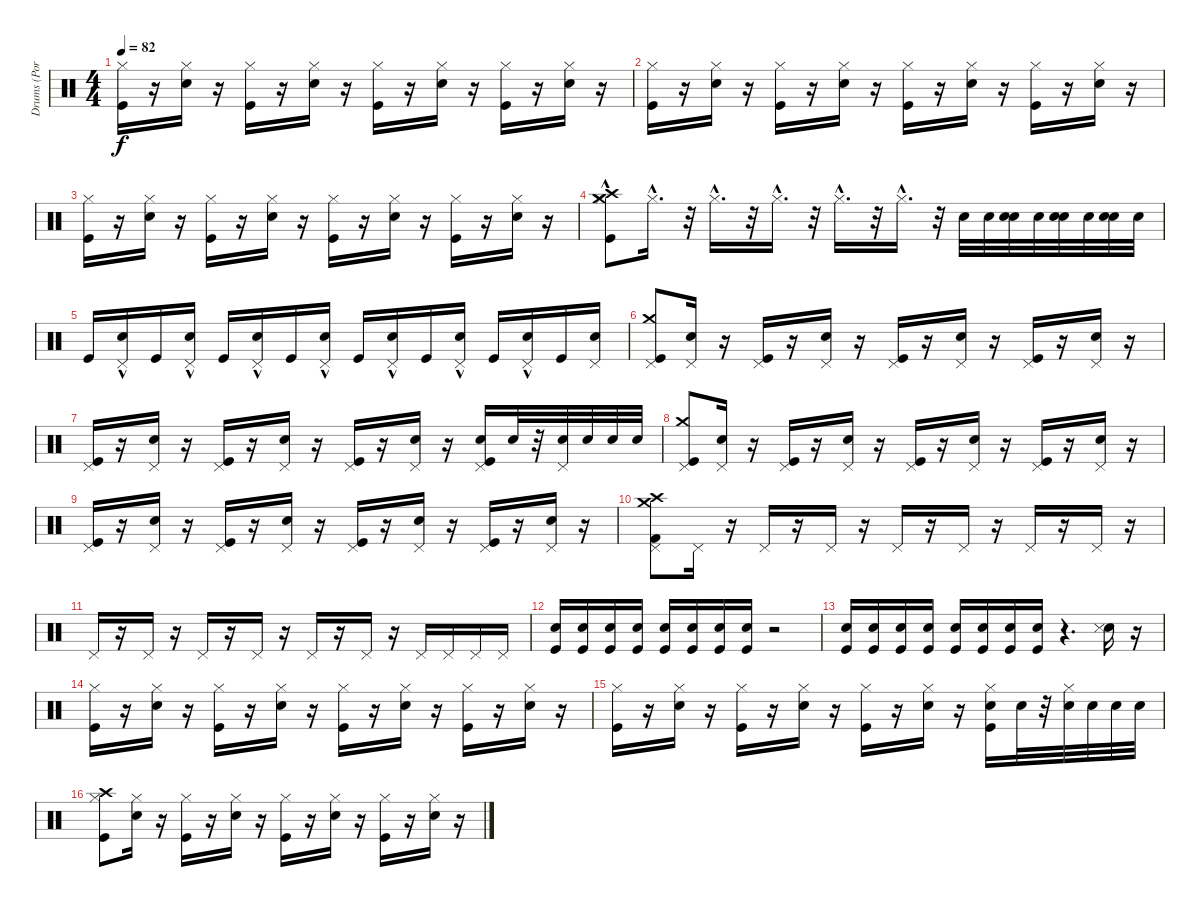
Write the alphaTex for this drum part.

\track ("Drums (Poruchik)" "Drums (Por") {instrument percussion}
\staff {score}
\articulation defaults
\ts (4 4)
\tempo 82
\clef neutral
\ks c
("Kick (hit)" "Hi-Hat (closed)").16{dy f} r.16 ("Hi-Hat (closed)" "Snare (hit) 2").16 r.16 ("Kick (hit)" "Hi-Hat (closed)").16 r.16 ("Snare (hit) 2" "Hi-Hat (closed)").16 r.16 ("Hi-Hat (closed)" "Kick (hit)").16 r.16 ("Hi-Hat (closed)" "Snare (hit) 2").16 r.16 ("Kick (hit)" "Hi-Hat (closed)").16 r.16 ("Hi-Hat (closed)" "Snare (hit) 2").16 r.16 |
("Hi-Hat (closed)" "Kick (hit)").16 r.16 ("Hi-Hat (closed)" "Snare (hit) 2").16 r.16 ("Kick (hit)" "Hi-Hat (closed)").16 r.16 ("Hi-Hat (closed)" "Snare (hit) 2").16 r.16 ("Hi-Hat (closed)" "Kick (hit)").16 r.16 ("Snare (hit) 2" "Hi-Hat (closed)").16 r.16 ("Hi-Hat (closed)" "Kick (hit)").16 r.16 ("Hi-Hat (closed)" "Snare (hit) 2").16 r.16 |
("Kick (hit)" "Hi-Hat (closed)").16 r.16 ("Snare (hit) 2" "Hi-Hat (closed)").16 r.16 ("Hi-Hat (closed)" "Kick (hit)").16 r.16 ("Hi-Hat (closed)" "Snare (hit) 2").16 r.16 ("Hi-Hat (closed)" "Kick (hit)").16 r.16 ("Snare (hit) 2" "Hi-Hat (closed)").16 r.16 ("Hi-Hat (closed)" "Kick (hit)").16 r.16 ("Hi-Hat (closed)" "Snare (hit) 2").16 r.16 |
("Crash high (hit)" "Kick (hit)" "Crash medium (hit)" "Hi-Hat (closed)"{hac}).8 "Hi-Hat (closed)"{hac}.16{d} r.32 "Hi-Hat (closed)"{hac}.16{d} r.32 "Hi-Hat (closed)"{hac}.16{d} r.32 "Hi-Hat (closed)"{hac}.16{d} r.32 "Hi-Hat (closed)"{hac}.16{d} r.32 "Snare (hit) 2".32 "Snare (hit) 2".32 ("Snare (hit) 2" "Snare (hit) 2").32 "Snare (hit) 2".32 ("Snare (hit) 2" "Snare (hit) 2").32 "Snare (hit) 2".32 ("Snare (hit) 2" "Snare (hit) 2").32 "Snare (hit) 2".32 |
"Kick (hit)".16 ("Snare (hit) 2" "Pedal Hi-Hat (hit)"{hac}).16 "Kick (hit)".16 ("Snare (hit) 2" "Pedal Hi-Hat (hit)"{hac}).16 "Kick (hit)".16 ("Pedal Hi-Hat (hit)"{hac} "Snare (hit) 2").16 "Kick (hit)".16 ("Snare (hit) 2" "Pedal Hi-Hat (hit)"{hac}).16 "Kick (hit)".16 ("Pedal Hi-Hat (hit)"{hac} "Snare (hit) 2").16 "Kick (hit)".16 ("Snare (hit) 2" "Pedal Hi-Hat (hit)"{hac}).16 "Kick (hit)".16 ("Pedal Hi-Hat (hit)"{hac} "Snare (hit) 2").16 "Kick (hit)".16 ("Snare (hit) 2" "Pedal Hi-Hat (hit)").16 |
("Kick (hit)" "Crash medium (hit)" "Pedal Hi-Hat (hit)").8 ("Pedal Hi-Hat (hit)" "Snare (hit) 2").16 r.16 ("Pedal Hi-Hat (hit)" "Kick (hit)").16 r.16 ("Pedal Hi-Hat (hit)" "Snare (hit) 2").16 r.16 ("Kick (hit)" "Pedal Hi-Hat (hit)").16 r.16 ("Pedal Hi-Hat (hit)" "Snare (hit) 2").16 r.16 ("Pedal Hi-Hat (hit)" "Kick (hit)").16 r.16 ("Snare (hit) 2" "Pedal Hi-Hat (hit)").16 r.16 |
("Kick (hit)" "Pedal Hi-Hat (hit)").16 r.16 ("Snare (hit) 2" "Pedal Hi-Hat (hit)").16 r.16 ("Kick (hit)" "Pedal Hi-Hat (hit)").16 r.16 ("Pedal Hi-Hat (hit)" "Snare (hit) 2").16 r.16 ("Kick (hit)" "Pedal Hi-Hat (hit)").16 r.16 ("Pedal Hi-Hat (hit)" "Snare (hit) 2").16 r.16 ("Pedal Hi-Hat (hit)" "Snare (hit) 2" "Kick (hit)").16 "Snare (hit) 2".32 r.32 ("Pedal Hi-Hat (hit)" "Snare (hit) 2").32 "Snare (hit) 2".32 "Snare (hit) 2".32 "Snare (hit) 2".32 |
("Pedal Hi-Hat (hit)" "Kick (hit)" "Crash medium (hit)").8 ("Pedal Hi-Hat (hit)" "Snare (hit) 2").16 r.16 ("Pedal Hi-Hat (hit)" "Kick (hit)").16 r.16 ("Snare (hit) 2" "Pedal Hi-Hat (hit)").16 r.16 ("Pedal Hi-Hat (hit)" "Kick (hit)").16 r.16 ("Pedal Hi-Hat (hit)" "Snare (hit) 2").16 r.16 ("Pedal Hi-Hat (hit)" "Kick (hit)").16 r.16 ("Snare (hit) 2" "Pedal Hi-Hat (hit)").16 r.16 |
("Pedal Hi-Hat (hit)" "Kick (hit)").16 r.16 ("Snare (hit) 2" "Pedal Hi-Hat (hit)").16 r.16 ("Kick (hit)" "Pedal Hi-Hat (hit)").16 r.16 ("Snare (hit) 2" "Pedal Hi-Hat (hit)").16 r.16 ("Pedal Hi-Hat (hit)" "Kick (hit)").16 r.16 ("Pedal Hi-Hat (hit)" "Snare (hit) 2").16 r.16 ("Kick (hit)" "Pedal Hi-Hat (hit)").16 r.16 ("Pedal Hi-Hat (hit)" "Snare (hit) 2").16 r.16 |
("Pedal Hi-Hat (hit)" "Crash high (hit)" "Crash medium (hit)" "Kick (hit) 2").8 "Pedal Hi-Hat (hit)".16 r.16 "Pedal Hi-Hat (hit)".16 r.16 "Pedal Hi-Hat (hit)".16 r.16 "Pedal Hi-Hat (hit)".16 r.16 "Pedal Hi-Hat (hit)".16 r.16 "Pedal Hi-Hat (hit)".16 r.16 "Pedal Hi-Hat (hit)".16 r.16 |
"Pedal Hi-Hat (hit)".16 r.16 "Pedal Hi-Hat (hit)".16 r.16 "Pedal Hi-Hat (hit)".16 r.16 "Pedal Hi-Hat (hit)".16 r.16 "Pedal Hi-Hat (hit)".16 r.16 "Pedal Hi-Hat (hit)".16 r.16 "Pedal Hi-Hat (hit)".16 "Pedal Hi-Hat (hit)".16 "Pedal Hi-Hat (hit)".16 "Pedal Hi-Hat (hit)".16 |
("Kick (hit)" "Snare (hit) 2").16 ("Kick (hit)" "Snare (hit) 2").16 ("Kick (hit)" "Snare (hit) 2").16 ("Kick (hit)" "Snare (hit) 2").16 ("Kick (hit)" "Snare (hit) 2").16 ("Kick (hit)" "Snare (hit) 2").16 ("Kick (hit)" "Snare (hit) 2").16 ("Kick (hit)" "Snare (hit) 2").16 r.2 |
("Kick (hit)" "Snare (hit) 2").16 ("Snare (hit) 2" "Kick (hit)").16 ("Kick (hit)" "Snare (hit) 2").16 ("Snare (hit) 2" "Kick (hit)").16 ("Kick (hit)" "Snare (hit) 2").16 ("Kick (hit)" "Snare (hit) 2").16 ("Snare (hit) 2" "Kick (hit)").16 ("Kick (hit)" "Snare (hit) 2").16 r.4{d} ("Snare (hit) 2" "Snare (side stick) 3").16 r.16 |
("Hi-Hat (closed)" "Kick (hit)").16 r.16 ("Hi-Hat (closed)" "Snare (hit) 2").16 r.16 ("Hi-Hat (closed)" "Kick (hit)").16 r.16 ("Hi-Hat (closed)" "Snare (hit) 2").16 r.16 ("Hi-Hat (closed)" "Kick (hit)").16 r.16 ("Hi-Hat (closed)" "Snare (hit) 2").16 r.16 ("Hi-Hat (closed)" "Kick (hit)").16 r.16 ("Hi-Hat (closed)" "Snare (hit) 2").16 r.16 |
("Hi-Hat (closed)" "Kick (hit)").16 r.16 ("Hi-Hat (closed)" "Snare (hit) 2").16 r.16 ("Hi-Hat (closed)" "Kick (hit)").16 r.16 ("Hi-Hat (closed)" "Snare (hit) 2").16 r.16 ("Hi-Hat (closed)" "Kick (hit)").16 r.16 ("Hi-Hat (closed)" "Snare (hit) 2").16 r.16 ("Kick (hit)" "Hi-Hat (closed)" "Snare (hit) 2").16 "Snare (hit) 2".32 r.32 ("Snare (hit) 2" "Hi-Hat (closed)").32 "Snare (hit) 2".32 "Snare (hit) 2".32 "Snare (hit) 2".32 |
("Crash high (hit)" "Hi-Hat (closed)" "Kick (hit)").8 ("Snare (hit) 2" "Hi-Hat (closed)").16 r.16 ("Hi-Hat (closed)" "Kick (hit)").16 r.16 ("Hi-Hat (closed)" "Snare (hit) 2").16 r.16 ("Kick (hit)" "Hi-Hat (closed)").16 r.16 ("Hi-Hat (closed)" "Snare (hit) 2").16 r.16 ("Kick (hit)" "Hi-Hat (closed)").16 r.16 ("Hi-Hat (closed)" "Snare (hit) 2").16 r.16
